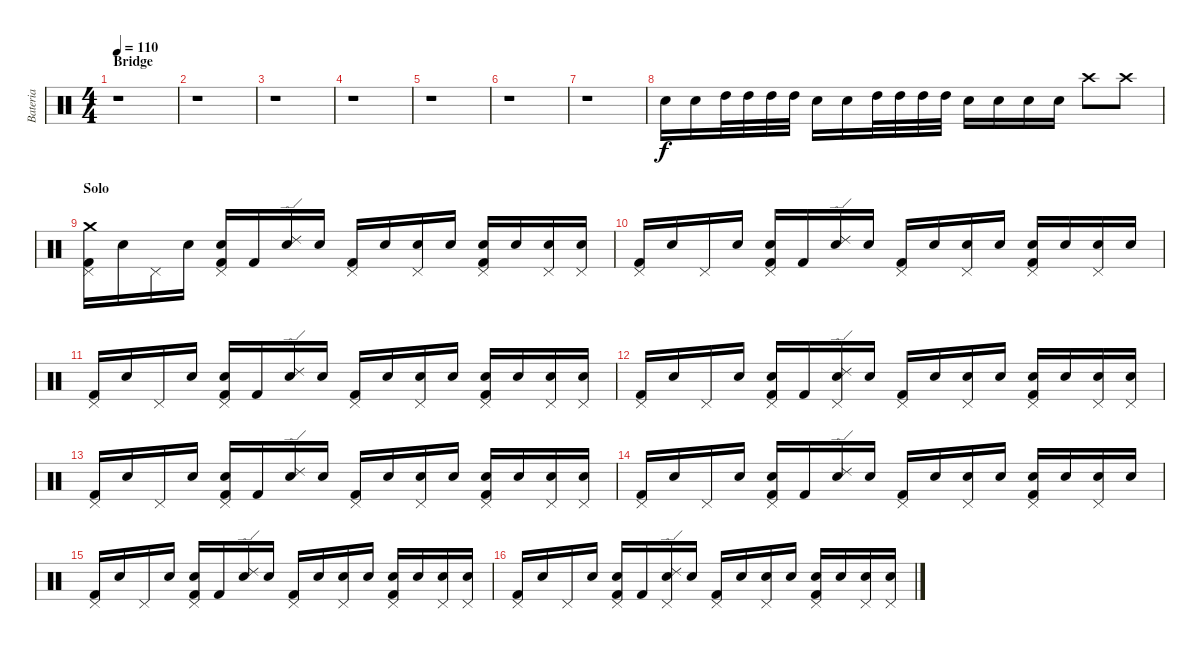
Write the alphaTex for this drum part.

\track ("Bateria" "Bateria") {instrument percussion}
\staff {score}
\articulation defaults
\ts (4 4)
\section ("" "Bridge")
\tempo 110
\clef neutral
\ks c
r.1{dy f} |
r.1 |
r.1 |
r.1 |
r.1 |
r.1 |
r.1 |
"Electric Snare (hit)".16 "Electric Snare (hit)".16 "High Tom (hit)".32 "High Tom (hit)".32 "High Tom (hit)".32 "High Tom (hit)".32 "Electric Snare (hit)".16 "Electric Snare (hit)".16 "High Tom (hit)".32 "High Tom (hit)".32 "High Tom (hit)".32 "High Tom (hit)".32 "Electric Snare (hit)".16 "Electric Snare (hit)".16 "Electric Snare (hit)".16 "Electric Snare (hit)".16 "Crash high (hit)".8 "Crash high (hit)".8 |
\section ("" "Solo")
("Kick (hit) 2" "Pedal Hi-Hat (hit)" "Crash medium (hit)").16 "Snare (hit)".16 "Pedal Hi-Hat (hit)".16 "Snare (hit)".16 ("Kick (hit) 2" "Pedal Hi-Hat (hit)" "Electric Snare (hit)").16 "Kick (hit) 2".16 ("Snare (hit)" "Ride (edge) 2").16 "Snare (hit)".16 ("Kick (hit) 2" "Pedal Hi-Hat (hit)").16 "Snare (hit)".16 ("Snare (hit)" "Pedal Hi-Hat (hit)").16 "Snare (hit)".16 ("Kick (hit) 2" "Pedal Hi-Hat (hit)" "Electric Snare (hit)").16 "Snare (hit)".16 ("Snare (hit)" "Pedal Hi-Hat (hit)").16 ("Snare (hit)" "Pedal Hi-Hat (hit)").16 |
("Kick (hit) 2" "Pedal Hi-Hat (hit)").16 "Snare (hit)".16 "Pedal Hi-Hat (hit)".16 "Snare (hit)".16 ("Kick (hit) 2" "Pedal Hi-Hat (hit)" "Electric Snare (hit)").16 "Kick (hit) 2".16 ("Snare (hit)" "Ride (edge) 2").16 "Snare (hit)".16 ("Kick (hit) 2" "Pedal Hi-Hat (hit)").16 "Snare (hit)".16 ("Snare (hit)" "Pedal Hi-Hat (hit)").16 "Snare (hit)".16 ("Kick (hit) 2" "Pedal Hi-Hat (hit)" "Electric Snare (hit)").16 "Snare (hit)".16 ("Snare (hit)" "Pedal Hi-Hat (hit)").16 "Snare (hit)".16 |
("Kick (hit) 2" "Pedal Hi-Hat (hit)").16 "Snare (hit)".16 "Pedal Hi-Hat (hit)".16 "Snare (hit)".16 ("Kick (hit) 2" "Pedal Hi-Hat (hit)" "Electric Snare (hit)").16 "Kick (hit) 2".16 ("Snare (hit)" "Ride (edge) 2").16 "Snare (hit)".16 ("Kick (hit) 2" "Pedal Hi-Hat (hit)").16 "Snare (hit)".16 ("Snare (hit)" "Pedal Hi-Hat (hit)").16 "Snare (hit)".16 ("Kick (hit) 2" "Pedal Hi-Hat (hit)" "Electric Snare (hit)").16 "Snare (hit)".16 ("Snare (hit)" "Pedal Hi-Hat (hit)").16 ("Snare (hit)" "Pedal Hi-Hat (hit)").16 |
("Kick (hit) 2" "Pedal Hi-Hat (hit)").16 "Snare (hit)".16 "Pedal Hi-Hat (hit)".16 "Snare (hit)".16 ("Kick (hit) 2" "Pedal Hi-Hat (hit)" "Electric Snare (hit)").16 "Kick (hit) 2".16 ("Snare (hit)" "Pedal Hi-Hat (hit)" "Ride (edge) 2").16 "Snare (hit)".16 ("Kick (hit) 2" "Pedal Hi-Hat (hit)").16 "Snare (hit)".16 ("Snare (hit)" "Pedal Hi-Hat (hit)").16 "Snare (hit)".16 ("Kick (hit) 2" "Pedal Hi-Hat (hit)" "Electric Snare (hit)").16 "Snare (hit)".16 ("Snare (hit)" "Pedal Hi-Hat (hit)").16 ("Snare (hit)" "Pedal Hi-Hat (hit)").16 |
("Kick (hit) 2" "Pedal Hi-Hat (hit)").16 "Snare (hit)".16 "Pedal Hi-Hat (hit)".16 "Snare (hit)".16 ("Kick (hit) 2" "Pedal Hi-Hat (hit)" "Electric Snare (hit)").16 "Kick (hit) 2".16 ("Snare (hit)" "Ride (edge) 2").16 "Snare (hit)".16 ("Kick (hit) 2" "Pedal Hi-Hat (hit)").16 "Snare (hit)".16 ("Snare (hit)" "Pedal Hi-Hat (hit)").16 "Snare (hit)".16 ("Kick (hit) 2" "Pedal Hi-Hat (hit)" "Electric Snare (hit)").16 "Snare (hit)".16 ("Snare (hit)" "Pedal Hi-Hat (hit)").16 ("Snare (hit)" "Pedal Hi-Hat (hit)").16 |
("Kick (hit) 2" "Pedal Hi-Hat (hit)").16 "Snare (hit)".16 "Pedal Hi-Hat (hit)".16 "Snare (hit)".16 ("Kick (hit) 2" "Pedal Hi-Hat (hit)" "Electric Snare (hit)").16 "Kick (hit) 2".16 ("Snare (hit)" "Ride (edge) 2").16 "Snare (hit)".16 ("Kick (hit) 2" "Pedal Hi-Hat (hit)").16 "Snare (hit)".16 ("Snare (hit)" "Pedal Hi-Hat (hit)").16 "Snare (hit)".16 ("Kick (hit) 2" "Pedal Hi-Hat (hit)" "Electric Snare (hit)").16 "Snare (hit)".16 ("Snare (hit)" "Pedal Hi-Hat (hit)").16 "Snare (hit)".16 |
("Kick (hit) 2" "Pedal Hi-Hat (hit)").16 "Snare (hit)".16 "Pedal Hi-Hat (hit)".16 "Snare (hit)".16 ("Kick (hit) 2" "Pedal Hi-Hat (hit)" "Electric Snare (hit)").16 "Kick (hit) 2".16 ("Snare (hit)" "Ride (edge) 2").16 "Snare (hit)".16 ("Kick (hit) 2" "Pedal Hi-Hat (hit)").16 "Snare (hit)".16 ("Snare (hit)" "Pedal Hi-Hat (hit)").16 "Snare (hit)".16 ("Kick (hit) 2" "Pedal Hi-Hat (hit)" "Electric Snare (hit)").16 "Snare (hit)".16 ("Snare (hit)" "Pedal Hi-Hat (hit)").16 ("Snare (hit)" "Pedal Hi-Hat (hit)").16 |
("Kick (hit) 2" "Pedal Hi-Hat (hit)").16 "Snare (hit)".16 "Pedal Hi-Hat (hit)".16 "Snare (hit)".16 ("Kick (hit) 2" "Pedal Hi-Hat (hit)" "Electric Snare (hit)").16 "Kick (hit) 2".16 ("Snare (hit)" "Pedal Hi-Hat (hit)" "Ride (edge) 2").16 "Snare (hit)".16 ("Kick (hit) 2" "Pedal Hi-Hat (hit)").16 "Snare (hit)".16 ("Snare (hit)" "Pedal Hi-Hat (hit)").16 "Snare (hit)".16 ("Kick (hit) 2" "Pedal Hi-Hat (hit)" "Electric Snare (hit)").16 "Snare (hit)".16 ("Snare (hit)" "Pedal Hi-Hat (hit)").16 ("Snare (hit)" "Pedal Hi-Hat (hit)").16
